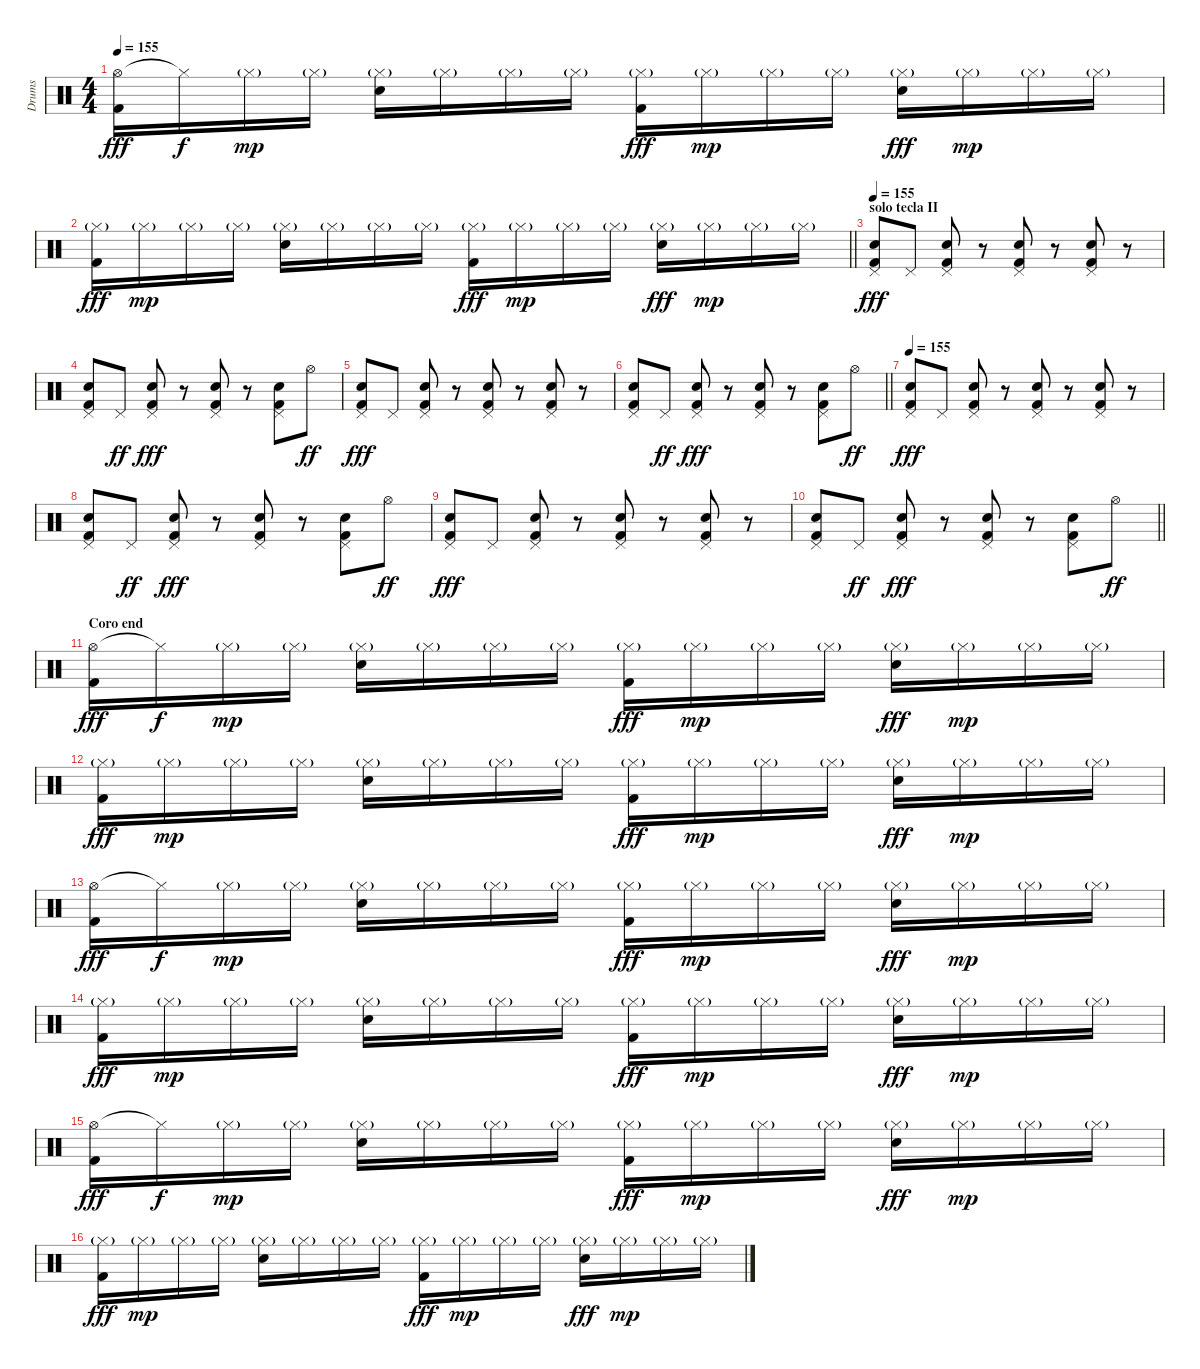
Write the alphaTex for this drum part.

\track ("Drums" "Drums") {instrument percussion}
\staff {score}
\articulation defaults
\ts (4 4)
\tempo 155
\clef neutral
\ks c
("Hi-Hat (open)" "Kick (hit) 2").16{dy fff} "Hi-Hat (closed)"{t}.16{dy f} "Hi-Hat (closed)"{g}.16{dy mp} "Hi-Hat (closed)"{g}.16 ("Hi-Hat (closed)"{g} "Electric Snare (hit)").16 "Hi-Hat (closed)"{g}.16 "Hi-Hat (closed)"{g}.16 "Hi-Hat (closed)"{g}.16 ("Hi-Hat (closed)"{g} "Kick (hit) 2").16{dy fff} "Hi-Hat (closed)"{g}.16{dy mp} "Hi-Hat (closed)"{g}.16 "Hi-Hat (closed)"{g}.16 ("Hi-Hat (closed)"{g} "Electric Snare (hit)").16{dy fff} "Hi-Hat (closed)"{g}.16{dy mp} "Hi-Hat (closed)"{g}.16 "Hi-Hat (closed)"{g}.16 |
\barLineRight lightlight
("Hi-Hat (closed)"{g} "Kick (hit) 2").16{dy fff} "Hi-Hat (closed)"{g}.16{dy mp} "Hi-Hat (closed)"{g}.16 "Hi-Hat (closed)"{g}.16 ("Hi-Hat (closed)"{g} "Electric Snare (hit)").16 "Hi-Hat (closed)"{g}.16 "Hi-Hat (closed)"{g}.16 "Hi-Hat (closed)"{g}.16 ("Hi-Hat (closed)"{g} "Kick (hit) 2").16{dy fff} "Hi-Hat (closed)"{g}.16{dy mp} "Hi-Hat (closed)"{g}.16 "Hi-Hat (closed)"{g}.16 ("Hi-Hat (closed)"{g} "Electric Snare (hit)").16{dy fff} "Hi-Hat (closed)"{g}.16{dy mp} "Hi-Hat (closed)"{g}.16 "Hi-Hat (closed)"{g}.16 |
\section ("" "solo tecla II")
\tempo 155
("Pedal Hi-Hat (hit)" "Electric Snare (hit)" "Kick (hit) 2").8{dy fff} "Pedal Hi-Hat (hit)".8 ("Pedal Hi-Hat (hit)" "Electric Snare (hit)" "Kick (hit) 2").8 r.8 ("Pedal Hi-Hat (hit)" "Electric Snare (hit)" "Kick (hit) 2").8 r.8 ("Pedal Hi-Hat (hit)" "Electric Snare (hit)" "Kick (hit) 2").8 r.8 |
("Pedal Hi-Hat (hit)" "Electric Snare (hit)" "Kick (hit) 2").8 "Pedal Hi-Hat (hit)".8{dy ff} ("Pedal Hi-Hat (hit)" "Electric Snare (hit)" "Kick (hit) 2").8{dy fff} r.8 ("Pedal Hi-Hat (hit)" "Electric Snare (hit)" "Kick (hit) 2").8 r.8 ("Pedal Hi-Hat (hit)" "Electric Snare (hit)" "Kick (hit) 2").8 "Hi-Hat (open)".8{dy ff} |
("Pedal Hi-Hat (hit)" "Electric Snare (hit)" "Kick (hit) 2").8{dy fff} "Pedal Hi-Hat (hit)".8 ("Pedal Hi-Hat (hit)" "Electric Snare (hit)" "Kick (hit) 2").8 r.8 ("Pedal Hi-Hat (hit)" "Electric Snare (hit)" "Kick (hit) 2").8 r.8 ("Pedal Hi-Hat (hit)" "Electric Snare (hit)" "Kick (hit) 2").8 r.8 |
\barLineRight lightlight
("Pedal Hi-Hat (hit)" "Electric Snare (hit)" "Kick (hit) 2").8 "Pedal Hi-Hat (hit)".8{dy ff} ("Pedal Hi-Hat (hit)" "Electric Snare (hit)" "Kick (hit) 2").8{dy fff} r.8 ("Pedal Hi-Hat (hit)" "Electric Snare (hit)" "Kick (hit) 2").8 r.8 ("Pedal Hi-Hat (hit)" "Electric Snare (hit)" "Kick (hit) 2").8 "Hi-Hat (open)".8{dy ff} |
\tempo 155
("Pedal Hi-Hat (hit)" "Electric Snare (hit)" "Kick (hit) 2").8{dy fff} "Pedal Hi-Hat (hit)".8 ("Pedal Hi-Hat (hit)" "Electric Snare (hit)" "Kick (hit) 2").8 r.8 ("Pedal Hi-Hat (hit)" "Electric Snare (hit)" "Kick (hit) 2").8 r.8 ("Pedal Hi-Hat (hit)" "Electric Snare (hit)" "Kick (hit) 2").8 r.8 |
("Pedal Hi-Hat (hit)" "Electric Snare (hit)" "Kick (hit) 2").8 "Pedal Hi-Hat (hit)".8{dy ff} ("Pedal Hi-Hat (hit)" "Electric Snare (hit)" "Kick (hit) 2").8{dy fff} r.8 ("Pedal Hi-Hat (hit)" "Electric Snare (hit)" "Kick (hit) 2").8 r.8 ("Pedal Hi-Hat (hit)" "Electric Snare (hit)" "Kick (hit) 2").8 "Hi-Hat (open)".8{dy ff} |
("Pedal Hi-Hat (hit)" "Electric Snare (hit)" "Kick (hit) 2").8{dy fff} "Pedal Hi-Hat (hit)".8 ("Pedal Hi-Hat (hit)" "Electric Snare (hit)" "Kick (hit) 2").8 r.8 ("Pedal Hi-Hat (hit)" "Electric Snare (hit)" "Kick (hit) 2").8 r.8 ("Pedal Hi-Hat (hit)" "Electric Snare (hit)" "Kick (hit) 2").8 r.8 |
\barLineRight lightlight
("Pedal Hi-Hat (hit)" "Electric Snare (hit)" "Kick (hit) 2").8 "Pedal Hi-Hat (hit)".8{dy ff} ("Pedal Hi-Hat (hit)" "Electric Snare (hit)" "Kick (hit) 2").8{dy fff} r.8 ("Pedal Hi-Hat (hit)" "Electric Snare (hit)" "Kick (hit) 2").8 r.8 ("Pedal Hi-Hat (hit)" "Electric Snare (hit)" "Kick (hit) 2").8 "Hi-Hat (open)".8{dy ff} |
\section ("" "Coro end")
("Hi-Hat (open)" "Kick (hit) 2").16{dy fff} "Hi-Hat (closed)"{t}.16{dy f} "Hi-Hat (closed)"{g}.16{dy mp} "Hi-Hat (closed)"{g}.16 ("Hi-Hat (closed)"{g} "Electric Snare (hit)").16 "Hi-Hat (closed)"{g}.16 "Hi-Hat (closed)"{g}.16 "Hi-Hat (closed)"{g}.16 ("Hi-Hat (closed)"{g} "Kick (hit) 2").16{dy fff} "Hi-Hat (closed)"{g}.16{dy mp} "Hi-Hat (closed)"{g}.16 "Hi-Hat (closed)"{g}.16 ("Hi-Hat (closed)"{g} "Electric Snare (hit)").16{dy fff} "Hi-Hat (closed)"{g}.16{dy mp} "Hi-Hat (closed)"{g}.16 "Hi-Hat (closed)"{g}.16 |
("Hi-Hat (closed)"{g} "Kick (hit) 2").16{dy fff} "Hi-Hat (closed)"{g}.16{dy mp} "Hi-Hat (closed)"{g}.16 "Hi-Hat (closed)"{g}.16 ("Hi-Hat (closed)"{g} "Electric Snare (hit)").16 "Hi-Hat (closed)"{g}.16 "Hi-Hat (closed)"{g}.16 "Hi-Hat (closed)"{g}.16 ("Hi-Hat (closed)"{g} "Kick (hit) 2").16{dy fff} "Hi-Hat (closed)"{g}.16{dy mp} "Hi-Hat (closed)"{g}.16 "Hi-Hat (closed)"{g}.16 ("Hi-Hat (closed)"{g} "Electric Snare (hit)").16{dy fff} "Hi-Hat (closed)"{g}.16{dy mp} "Hi-Hat (closed)"{g}.16 "Hi-Hat (closed)"{g}.16 |
("Hi-Hat (open)" "Kick (hit) 2").16{dy fff} "Hi-Hat (closed)"{t}.16{dy f} "Hi-Hat (closed)"{g}.16{dy mp} "Hi-Hat (closed)"{g}.16 ("Hi-Hat (closed)"{g} "Electric Snare (hit)").16 "Hi-Hat (closed)"{g}.16 "Hi-Hat (closed)"{g}.16 "Hi-Hat (closed)"{g}.16 ("Hi-Hat (closed)"{g} "Kick (hit) 2").16{dy fff} "Hi-Hat (closed)"{g}.16{dy mp} "Hi-Hat (closed)"{g}.16 "Hi-Hat (closed)"{g}.16 ("Hi-Hat (closed)"{g} "Electric Snare (hit)").16{dy fff} "Hi-Hat (closed)"{g}.16{dy mp} "Hi-Hat (closed)"{g}.16 "Hi-Hat (closed)"{g}.16 |
("Hi-Hat (closed)"{g} "Kick (hit) 2").16{dy fff} "Hi-Hat (closed)"{g}.16{dy mp} "Hi-Hat (closed)"{g}.16 "Hi-Hat (closed)"{g}.16 ("Hi-Hat (closed)"{g} "Electric Snare (hit)").16 "Hi-Hat (closed)"{g}.16 "Hi-Hat (closed)"{g}.16 "Hi-Hat (closed)"{g}.16 ("Hi-Hat (closed)"{g} "Kick (hit) 2").16{dy fff} "Hi-Hat (closed)"{g}.16{dy mp} "Hi-Hat (closed)"{g}.16 "Hi-Hat (closed)"{g}.16 ("Hi-Hat (closed)"{g} "Electric Snare (hit)").16{dy fff} "Hi-Hat (closed)"{g}.16{dy mp} "Hi-Hat (closed)"{g}.16 "Hi-Hat (closed)"{g}.16 |
("Hi-Hat (open)" "Kick (hit) 2").16{dy fff} "Hi-Hat (closed)"{t}.16{dy f} "Hi-Hat (closed)"{g}.16{dy mp} "Hi-Hat (closed)"{g}.16 ("Hi-Hat (closed)"{g} "Electric Snare (hit)").16 "Hi-Hat (closed)"{g}.16 "Hi-Hat (closed)"{g}.16 "Hi-Hat (closed)"{g}.16 ("Hi-Hat (closed)"{g} "Kick (hit) 2").16{dy fff} "Hi-Hat (closed)"{g}.16{dy mp} "Hi-Hat (closed)"{g}.16 "Hi-Hat (closed)"{g}.16 ("Hi-Hat (closed)"{g} "Electric Snare (hit)").16{dy fff} "Hi-Hat (closed)"{g}.16{dy mp} "Hi-Hat (closed)"{g}.16 "Hi-Hat (closed)"{g}.16 |
("Hi-Hat (closed)"{g} "Kick (hit) 2").16{dy fff} "Hi-Hat (closed)"{g}.16{dy mp} "Hi-Hat (closed)"{g}.16 "Hi-Hat (closed)"{g}.16 ("Hi-Hat (closed)"{g} "Electric Snare (hit)").16 "Hi-Hat (closed)"{g}.16 "Hi-Hat (closed)"{g}.16 "Hi-Hat (closed)"{g}.16 ("Hi-Hat (closed)"{g} "Kick (hit) 2").16{dy fff} "Hi-Hat (closed)"{g}.16{dy mp} "Hi-Hat (closed)"{g}.16 "Hi-Hat (closed)"{g}.16 ("Hi-Hat (closed)"{g} "Electric Snare (hit)").16{dy fff} "Hi-Hat (closed)"{g}.16{dy mp} "Hi-Hat (closed)"{g}.16 "Hi-Hat (closed)"{g}.16
